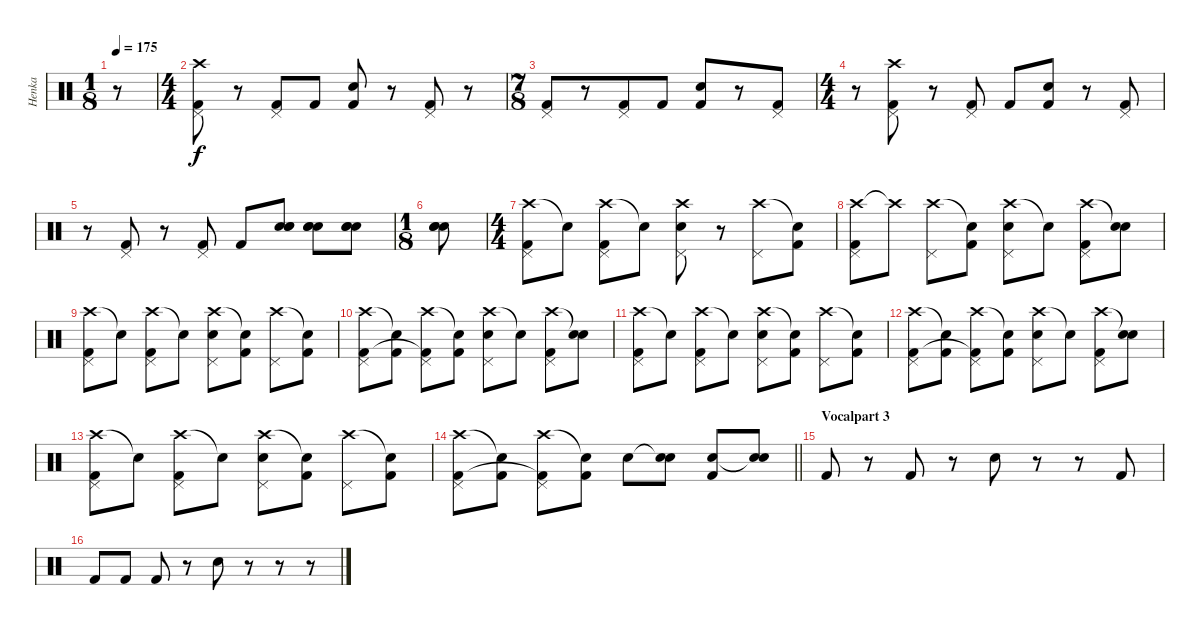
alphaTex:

\track ("Henka" "Henka") {instrument percussion}
\staff {score}
\articulation defaults
\ts (1 8)
\tempo 175
\clef neutral
\ks c
r.8{dy f} |
\ts (4 4)
("Crash high (hit)" "Pedal Hi-Hat (hit)" "Kick (hit) 2").8 r.8 ("Pedal Hi-Hat (hit)" "Kick (hit) 2").8 "Kick (hit) 2".8 ("Snare (hit) 2" "Kick (hit) 2").8 r.8 ("Pedal Hi-Hat (hit)" "Kick (hit) 2").8 r.8 |
\ts (7 8)
("Pedal Hi-Hat (hit)" "Kick (hit) 2").8 r.8 ("Pedal Hi-Hat (hit)" "Kick (hit) 2").8 "Kick (hit) 2".8 ("Snare (hit) 2" "Kick (hit) 2").8 r.8 ("Pedal Hi-Hat (hit)" "Kick (hit) 2").8 |
\ts (4 4)
r.8 ("Crash high (hit)" "Pedal Hi-Hat (hit)" "Kick (hit) 2").8 r.8 ("Pedal Hi-Hat (hit)" "Kick (hit) 2").8 "Kick (hit) 2".8 ("Snare (hit) 2" "Kick (hit) 2").8 r.8 ("Pedal Hi-Hat (hit)" "Kick (hit) 2").8 |
r.8 ("Pedal Hi-Hat (hit)" "Kick (hit) 2").8 r.8 ("Pedal Hi-Hat (hit)" "Kick (hit) 2").8 "Kick (hit) 2".8 ("Snare (hit) 2" "Electric Snare (hit)" "Snare (hit) 2").8 ("Snare (hit) 2" "Electric Snare (hit)" "Snare (hit) 2").8 ("Snare (hit) 2" "Electric Snare (hit)" "Snare (hit) 2").8 |
\ts (1 8)
("Snare (hit) 2" "Electric Snare (hit)" "Snare (hit) 2").8 |
\ts (4 4)
("Crash high (hit)" "Pedal Hi-Hat (hit)" "Kick (hit) 2").8 "Snare (hit)"{t}.8 ("Crash high (hit)" "Pedal Hi-Hat (hit)" "Kick (hit) 2").8 "Snare (hit)"{t}.8 ("Crash high (hit)" "Pedal Hi-Hat (hit)" "Snare (hit) 2").8 r.8 ("Crash high (hit)" "Pedal Hi-Hat (hit)").8 ("Snare (hit)"{t} "Kick (hit) 2").8 |
("Crash high (hit)" "Pedal Hi-Hat (hit)" "Kick (hit) 2").8 "Crash high (hit)"{t}.8 ("Crash high (hit)" "Pedal Hi-Hat (hit)").8 ("Snare (hit)"{t} "Kick (hit) 2").8 ("Crash high (hit)" "Pedal Hi-Hat (hit)" "Snare (hit) 2").8 "Snare (hit)"{t}.8 ("Crash high (hit)" "Pedal Hi-Hat (hit)" "Kick (hit) 2").8 ("Snare (hit)"{t} "Snare (hit) 2").8 |
("Crash high (hit)" "Pedal Hi-Hat (hit)" "Kick (hit) 2").8 "Snare (hit)"{t}.8 ("Crash high (hit)" "Pedal Hi-Hat (hit)" "Kick (hit) 2").8 "Snare (hit)"{t}.8 ("Crash high (hit)" "Pedal Hi-Hat (hit)" "Snare (hit) 2").8 ("Snare (hit)"{t} "Kick (hit) 2").8 ("Crash high (hit)" "Pedal Hi-Hat (hit)").8 ("Snare (hit)"{t} "Kick (hit) 2").8 |
("Crash high (hit)" "Pedal Hi-Hat (hit)" "Kick (hit) 2").8 ("Snare (hit)"{t} "Kick (hit) 2").8 ("Crash high (hit)" "Pedal Hi-Hat (hit)" "Kick (hit) 2"{t}).8 ("Snare (hit)"{t} "Kick (hit) 2").8 ("Crash high (hit)" "Pedal Hi-Hat (hit)" "Snare (hit) 2").8 "Snare (hit)"{t}.8 ("Crash high (hit)" "Pedal Hi-Hat (hit)" "Kick (hit) 2").8 ("Snare (hit)"{t} "Snare (hit) 2").8 |
("Crash high (hit)" "Pedal Hi-Hat (hit)" "Kick (hit) 2").8 "Snare (hit)"{t}.8 ("Crash high (hit)" "Pedal Hi-Hat (hit)" "Kick (hit) 2").8 "Snare (hit)"{t}.8 ("Crash high (hit)" "Pedal Hi-Hat (hit)" "Snare (hit) 2").8 ("Snare (hit)"{t} "Kick (hit) 2").8 ("Crash high (hit)" "Pedal Hi-Hat (hit)").8 ("Snare (hit)"{t} "Kick (hit) 2").8 |
("Crash high (hit)" "Pedal Hi-Hat (hit)" "Kick (hit) 2").8 ("Snare (hit)"{t} "Kick (hit) 2").8 ("Crash high (hit)" "Pedal Hi-Hat (hit)" "Kick (hit) 2"{t}).8 ("Snare (hit)"{t} "Kick (hit) 2").8 ("Crash high (hit)" "Pedal Hi-Hat (hit)" "Snare (hit) 2").8 "Snare (hit)"{t}.8 ("Crash high (hit)" "Pedal Hi-Hat (hit)" "Kick (hit) 2").8 ("Snare (hit)"{t} "Snare (hit) 2").8 |
("Crash high (hit)" "Pedal Hi-Hat (hit)" "Kick (hit) 2").8 "Snare (hit)"{t}.8 ("Crash high (hit)" "Pedal Hi-Hat (hit)" "Kick (hit) 2").8 "Snare (hit)"{t}.8 ("Crash high (hit)" "Pedal Hi-Hat (hit)" "Snare (hit) 2").8 ("Snare (hit)"{t} "Kick (hit) 2").8 ("Crash high (hit)" "Pedal Hi-Hat (hit)").8 ("Snare (hit)"{t} "Kick (hit) 2").8 |
\barLineRight lightlight
("Crash high (hit)" "Pedal Hi-Hat (hit)" "Kick (hit) 2").8 ("Snare (hit)"{t} "Kick (hit) 2").8 ("Crash high (hit)" "Pedal Hi-Hat (hit)" "Kick (hit) 2"{t}).8 ("Snare (hit)"{t} "Kick (hit) 2").8 "Snare (hit) 2".8 ("Snare (hit)"{t} "Snare (hit) 2").8 ("Snare (hit) 2" "Kick (hit) 2").8 ("Snare (hit)"{t} "Snare (hit) 2").8 |
\section ("" "Vocalpart 3")
"Kick (hit) 2".8 r.8 "Kick (hit) 2".8 r.8 "Snare (hit) 2".8 r.8 r.8 "Kick (hit) 2".8 |
"Kick (hit) 2".8 "Kick (hit) 2".8 "Kick (hit) 2".8 r.8 "Snare (hit) 2".8 r.8 r.8 r.8
